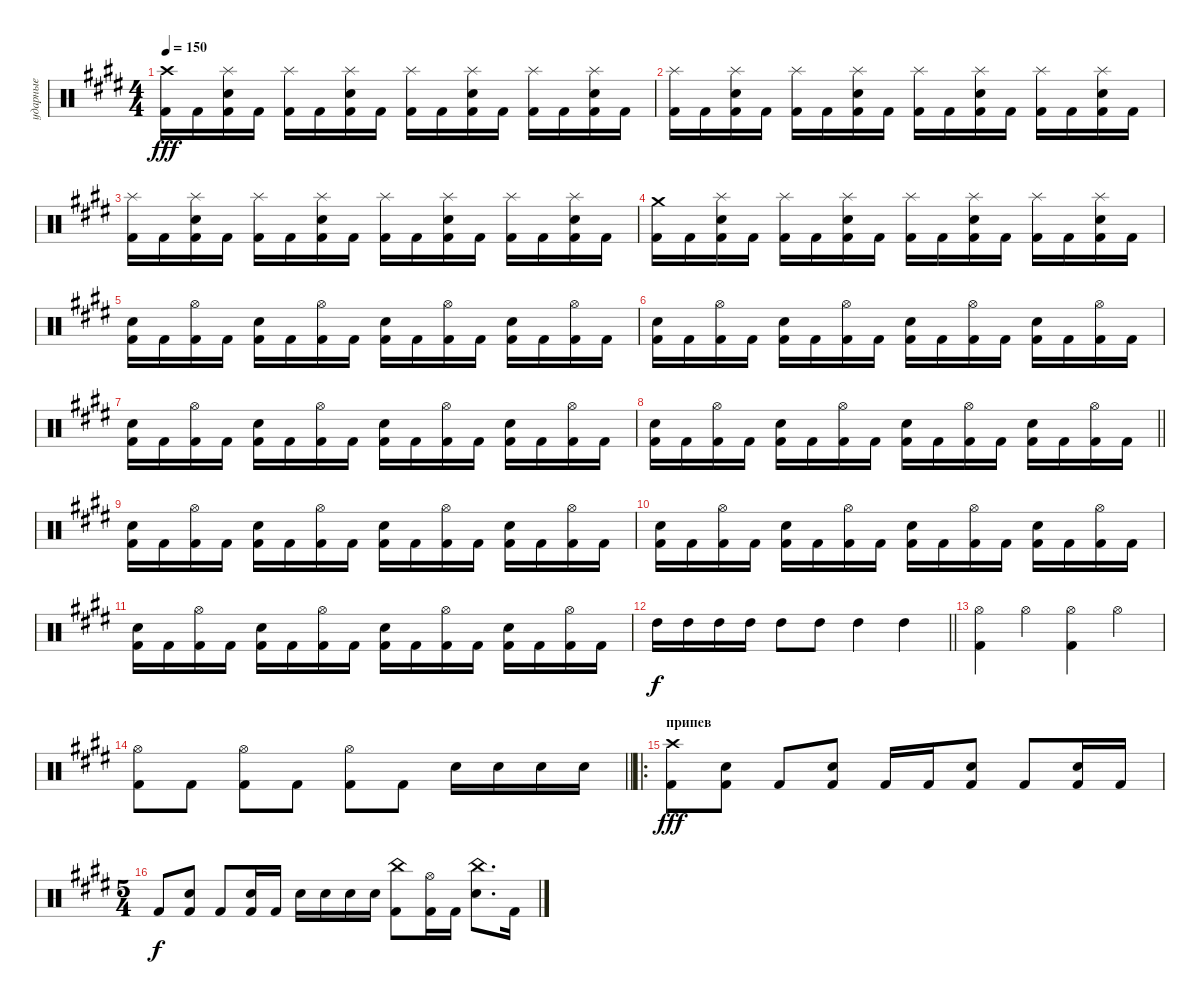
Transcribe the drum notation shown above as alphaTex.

\track ("ударные" "ударные") {instrument percussion}
\staff {score}
\articulation defaults
\ts (4 4)
\tempo 150
\clef neutral
\ks c#minor
("Crash high (hit)" "Kick (hit) 2").16{dy fff} "Kick (hit) 2".16 ("Splash (hit)" "Electric Snare (hit)" "Kick (hit) 2").16 "Kick (hit) 2".16 ("Splash (hit)" "Kick (hit) 2").16 "Kick (hit) 2".16 ("Splash (hit)" "Electric Snare (hit)" "Kick (hit) 2").16 "Kick (hit) 2".16 ("Splash (hit)" "Kick (hit) 2").16 "Kick (hit) 2".16 ("Splash (hit)" "Electric Snare (hit)" "Kick (hit) 2").16 "Kick (hit) 2".16 ("Splash (hit)" "Kick (hit) 2").16 "Kick (hit) 2".16 ("Splash (hit)" "Electric Snare (hit)" "Kick (hit) 2").16 "Kick (hit) 2".16 |
("Splash (hit)" "Kick (hit) 2").16 "Kick (hit) 2".16 ("Splash (hit)" "Electric Snare (hit)" "Kick (hit) 2").16 "Kick (hit) 2".16 ("Splash (hit)" "Kick (hit) 2").16 "Kick (hit) 2".16 ("Splash (hit)" "Electric Snare (hit)" "Kick (hit) 2").16 "Kick (hit) 2".16 ("Splash (hit)" "Kick (hit) 2").16 "Kick (hit) 2".16 ("Splash (hit)" "Electric Snare (hit)" "Kick (hit) 2").16 "Kick (hit) 2".16 ("Splash (hit)" "Kick (hit) 2").16 "Kick (hit) 2".16 ("Splash (hit)" "Electric Snare (hit)" "Kick (hit) 2").16 "Kick (hit) 2".16 |
("Splash (hit)" "Kick (hit) 2").16 "Kick (hit) 2".16 ("Splash (hit)" "Electric Snare (hit)" "Kick (hit) 2").16 "Kick (hit) 2".16 ("Splash (hit)" "Kick (hit) 2").16 "Kick (hit) 2".16 ("Splash (hit)" "Electric Snare (hit)" "Kick (hit) 2").16 "Kick (hit) 2".16 ("Splash (hit)" "Kick (hit) 2").16 "Kick (hit) 2".16 ("Splash (hit)" "Electric Snare (hit)" "Kick (hit) 2").16 "Kick (hit) 2".16 ("Splash (hit)" "Kick (hit) 2").16 "Kick (hit) 2".16 ("Splash (hit)" "Electric Snare (hit)" "Kick (hit) 2").16 "Kick (hit) 2".16 |
("Crash medium (hit)" "Kick (hit) 2").16 "Kick (hit) 2".16 ("Splash (hit)" "Electric Snare (hit)" "Kick (hit) 2").16 "Kick (hit) 2".16 ("Splash (hit)" "Kick (hit) 2").16 "Kick (hit) 2".16 ("Splash (hit)" "Electric Snare (hit)" "Kick (hit) 2").16 "Kick (hit) 2".16 ("Splash (hit)" "Kick (hit) 2").16 "Kick (hit) 2".16 ("Splash (hit)" "Electric Snare (hit)" "Kick (hit) 2").16 "Kick (hit) 2".16 ("Splash (hit)" "Kick (hit) 2").16 "Kick (hit) 2".16 ("Splash (hit)" "Electric Snare (hit)" "Kick (hit) 2").16 "Kick (hit) 2".16 |
("Electric Snare (hit)" "Kick (hit) 2").16 "Kick (hit) 2".16 ("Hi-Hat (open)" "Kick (hit) 2").16 "Kick (hit) 2".16 ("Electric Snare (hit)" "Kick (hit) 2").16 "Kick (hit) 2".16 ("Hi-Hat (open)" "Kick (hit) 2").16 "Kick (hit) 2".16 ("Electric Snare (hit)" "Kick (hit) 2").16 "Kick (hit) 2".16 ("Hi-Hat (open)" "Kick (hit) 2").16 "Kick (hit) 2".16 ("Electric Snare (hit)" "Kick (hit) 2").16 "Kick (hit) 2".16 ("Hi-Hat (open)" "Kick (hit) 2").16 "Kick (hit) 2".16 |
("Electric Snare (hit)" "Kick (hit) 2").16 "Kick (hit) 2".16 ("Hi-Hat (open)" "Kick (hit) 2").16 "Kick (hit) 2".16 ("Electric Snare (hit)" "Kick (hit) 2").16 "Kick (hit) 2".16 ("Hi-Hat (open)" "Kick (hit) 2").16 "Kick (hit) 2".16 ("Electric Snare (hit)" "Kick (hit) 2").16 "Kick (hit) 2".16 ("Hi-Hat (open)" "Kick (hit) 2").16 "Kick (hit) 2".16 ("Electric Snare (hit)" "Kick (hit) 2").16 "Kick (hit) 2".16 ("Hi-Hat (open)" "Kick (hit) 2").16 "Kick (hit) 2".16 |
("Electric Snare (hit)" "Kick (hit) 2").16 "Kick (hit) 2".16 ("Hi-Hat (open)" "Kick (hit) 2").16 "Kick (hit) 2".16 ("Electric Snare (hit)" "Kick (hit) 2").16 "Kick (hit) 2".16 ("Hi-Hat (open)" "Kick (hit) 2").16 "Kick (hit) 2".16 ("Electric Snare (hit)" "Kick (hit) 2").16 "Kick (hit) 2".16 ("Hi-Hat (open)" "Kick (hit) 2").16 "Kick (hit) 2".16 ("Electric Snare (hit)" "Kick (hit) 2").16 "Kick (hit) 2".16 ("Hi-Hat (open)" "Kick (hit) 2").16 "Kick (hit) 2".16 |
\barLineRight lightlight
("Electric Snare (hit)" "Kick (hit) 2").16 "Kick (hit) 2".16 ("Hi-Hat (open)" "Kick (hit) 2").16 "Kick (hit) 2".16 ("Electric Snare (hit)" "Kick (hit) 2").16 "Kick (hit) 2".16 ("Hi-Hat (open)" "Kick (hit) 2").16 "Kick (hit) 2".16 ("Electric Snare (hit)" "Kick (hit) 2").16 "Kick (hit) 2".16 ("Hi-Hat (open)" "Kick (hit) 2").16 "Kick (hit) 2".16 ("Electric Snare (hit)" "Kick (hit) 2").16 "Kick (hit) 2".16 ("Hi-Hat (open)" "Kick (hit) 2").16 "Kick (hit) 2".16 |
("Electric Snare (hit)" "Kick (hit) 2").16 "Kick (hit) 2".16 ("Hi-Hat (open)" "Kick (hit) 2").16 "Kick (hit) 2".16 ("Electric Snare (hit)" "Kick (hit) 2").16 "Kick (hit) 2".16 ("Hi-Hat (open)" "Kick (hit) 2").16 "Kick (hit) 2".16 ("Electric Snare (hit)" "Kick (hit) 2").16 "Kick (hit) 2".16 ("Hi-Hat (open)" "Kick (hit) 2").16 "Kick (hit) 2".16 ("Electric Snare (hit)" "Kick (hit) 2").16 "Kick (hit) 2".16 ("Hi-Hat (open)" "Kick (hit) 2").16 "Kick (hit) 2".16 |
("Electric Snare (hit)" "Kick (hit) 2").16 "Kick (hit) 2".16 ("Hi-Hat (open)" "Kick (hit) 2").16 "Kick (hit) 2".16 ("Electric Snare (hit)" "Kick (hit) 2").16 "Kick (hit) 2".16 ("Hi-Hat (open)" "Kick (hit) 2").16 "Kick (hit) 2".16 ("Electric Snare (hit)" "Kick (hit) 2").16 "Kick (hit) 2".16 ("Hi-Hat (open)" "Kick (hit) 2").16 "Kick (hit) 2".16 ("Electric Snare (hit)" "Kick (hit) 2").16 "Kick (hit) 2".16 ("Hi-Hat (open)" "Kick (hit) 2").16 "Kick (hit) 2".16 |
("Electric Snare (hit)" "Kick (hit) 2").16 "Kick (hit) 2".16 ("Hi-Hat (open)" "Kick (hit) 2").16 "Kick (hit) 2".16 ("Electric Snare (hit)" "Kick (hit) 2").16 "Kick (hit) 2".16 ("Hi-Hat (open)" "Kick (hit) 2").16 "Kick (hit) 2".16 ("Electric Snare (hit)" "Kick (hit) 2").16 "Kick (hit) 2".16 ("Hi-Hat (open)" "Kick (hit) 2").16 "Kick (hit) 2".16 ("Electric Snare (hit)" "Kick (hit) 2").16 "Kick (hit) 2".16 ("Hi-Hat (open)" "Kick (hit) 2").16 "Kick (hit) 2".16 |
\barLineRight lightlight "High Tom (hit)".16{dy f} "High Tom (hit)".16 "High Tom (hit)".16 "High Tom (hit)".16 "High Tom (hit)".8 "High Tom (hit)".8 "High Tom (hit)".4 "High Tom (hit)".4
|
("Hi-Hat (open)" "Kick (hit) 2").4 "Hi-Hat (open)".4 ("Hi-Hat (open)" "Kick (hit) 2").4 "Hi-Hat (open)".4 |
\barLineRight lightlight
("Hi-Hat (open)" "Kick (hit) 2").8 "Kick (hit) 2".8 ("Hi-Hat (open)" "Kick (hit) 2").8 "Kick (hit) 2".8 ("Hi-Hat (open)" "Kick (hit) 2").8 "Kick (hit) 2".8 "Electric Snare (hit)".16 "Electric Snare (hit)".16 "Electric Snare (hit)".16 "Electric Snare (hit)".16 |
\ro
\section ("" "припев")
("Crash high (hit)" "Kick (hit) 2").8{dy fff} ("Electric Snare (hit)" "Kick (hit) 2").8 "Kick (hit) 2".8 ("Electric Snare (hit)" "Kick (hit) 2").8 "Kick (hit) 2".16 "Kick (hit) 2".16 ("Electric Snare (hit)" "Kick (hit) 2").8 "Kick (hit) 2".8 ("Electric Snare (hit)" "Kick (hit) 2").16 "Kick (hit) 2".16 |
\ts (5 4)
"Kick (hit) 2".8{dy f} ("Kick (hit) 2" "Electric Snare (hit)").8 "Kick (hit) 2".8 ("Kick (hit) 2" "Electric Snare (hit)").16 "Kick (hit) 2".16 "Electric Snare (hit)".16 "Electric Snare (hit)".16 "Electric Snare (hit)".16 "Electric Snare (hit)".16 ("Kick (hit) 2" "China (hit)").8 ("Kick (hit) 2" "Hi-Hat (open)").16 "Kick (hit) 2".16 ("Electric Snare (hit)" "China (hit)").8{d} "Kick (hit) 2".16
